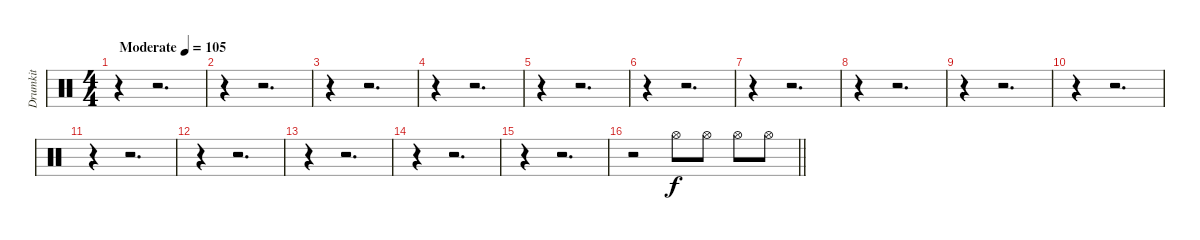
\track ("Drumkit" "Drumkit") {instrument percussion}
\staff {score}
\articulation defaults
\ts (4 4)
\tempo (105 "Moderate")
\clef neutral
\ks c
r.4{dy f} r.2{d} |
r.4 r.2{d} |
r.4 r.2{d} |
r.4 r.2{d} |
r.4 r.2{d} |
r.4 r.2{d} |
r.4 r.2{d} |
r.4 r.2{d} |
r.4 r.2{d} |
r.4 r.2{d} |
r.4 r.2{d} |
r.4 r.2{d} |
r.4 r.2{d} |
r.4 r.2{d} |
r.4 r.2{d} |
\barLineRight lightlight
r.2 "Hi-Hat (open)".8 "Hi-Hat (open)".8 "Hi-Hat (open)".8 "Hi-Hat (open)".8
